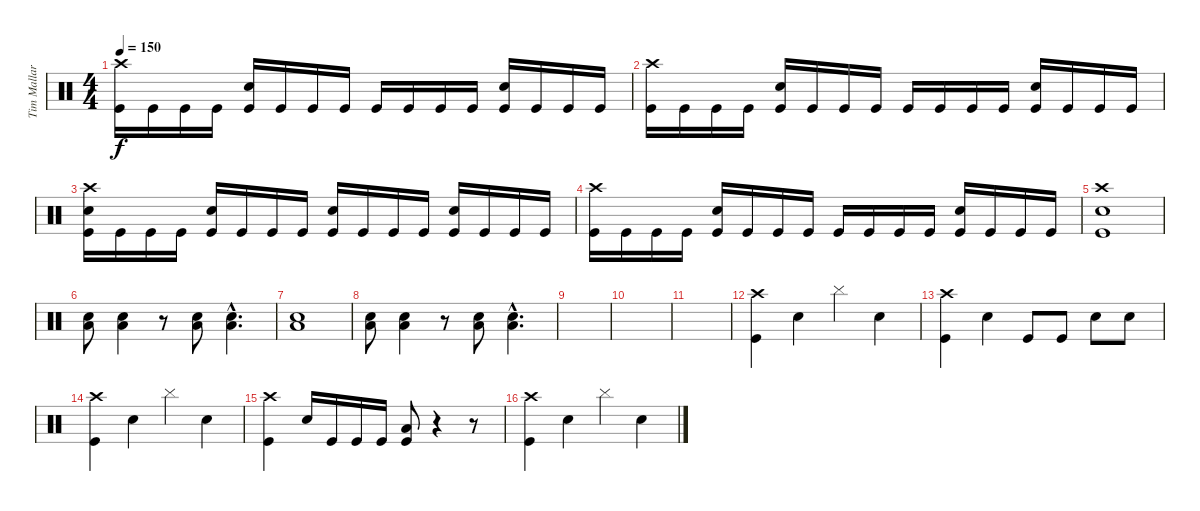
\track ("Tim Mallare-Drums" "Tim Mallar") {instrument percussion}
\staff {score}
\articulation defaults
\ts (4 4)
\tempo 150
\clef neutral
\ks c
("Crash high (hit)" "Kick (hit)").16{dy f} "Kick (hit)".16 "Kick (hit)".16 "Kick (hit)".16 ("Electric Snare (hit)" "Kick (hit)").16 "Kick (hit)".16 "Kick (hit)".16 "Kick (hit)".16 "Kick (hit)".16 "Kick (hit)".16 "Kick (hit)".16 "Kick (hit)".16 ("Electric Snare (hit)" "Kick (hit)").16 "Kick (hit)".16 "Kick (hit)".16 "Kick (hit)".16 |
("Crash high (hit)" "Kick (hit)").16 "Kick (hit)".16 "Kick (hit)".16 "Kick (hit)".16 ("Electric Snare (hit)" "Kick (hit)").16 "Kick (hit)".16 "Kick (hit)".16 "Kick (hit)".16 "Kick (hit)".16 "Kick (hit)".16 "Kick (hit)".16 "Kick (hit)".16 ("Electric Snare (hit)" "Kick (hit)").16 "Kick (hit)".16 "Kick (hit)".16 "Kick (hit)".16 |
("Crash high (hit)" "Electric Snare (hit)" "Kick (hit)").16 "Kick (hit)".16 "Kick (hit)".16 "Kick (hit)".16 ("Electric Snare (hit)" "Kick (hit)").16 "Kick (hit)".16 "Kick (hit)".16 "Kick (hit)".16 ("Electric Snare (hit)" "Kick (hit)").16 "Kick (hit)".16 "Kick (hit)".16 "Kick (hit)".16 ("Electric Snare (hit)" "Kick (hit)").16 "Kick (hit)".16 "Kick (hit)".16 "Kick (hit)".16 |
("Crash high (hit)" "Kick (hit)").16 "Kick (hit)".16 "Kick (hit)".16 "Kick (hit)".16 ("Electric Snare (hit)" "Kick (hit)").16 "Kick (hit)".16 "Kick (hit)".16 "Kick (hit)".16 "Kick (hit)".16 "Kick (hit)".16 "Kick (hit)".16 "Kick (hit)".16 ("Electric Snare (hit)" "Kick (hit)").16 "Kick (hit)".16 "Kick (hit)".16 "Kick (hit)".16 |
("Crash high (hit)" "Electric Snare (hit)" "Kick (hit)").1 |
("Electric Snare (hit)" "Low Tom (hit)").8 ("Electric Snare (hit)" "Low Tom (hit)").4 r.8 ("Electric Snare (hit)" "Low Tom (hit)").8 ("Electric Snare (hit)"{hac} "Low Tom (hit)"{hac}).4{d} |
("Electric Snare (hit)" "Low Tom (hit)").1 |
("Electric Snare (hit)" "Low Tom (hit)").8 ("Electric Snare (hit)" "Low Tom (hit)").4 r.8 ("Electric Snare (hit)" "Low Tom (hit)").8 ("Electric Snare (hit)"{hac} "Low Tom (hit)"{hac}).4{d} |
|
|
|
("Crash high (hit)" "Kick (hit)").4 "Electric Snare (hit)".4 "Cymbal (hit)".4 "Electric Snare (hit)".4 |
("Crash high (hit)" "Kick (hit)").4 "Electric Snare (hit)".4 "Kick (hit)".8 "Kick (hit)".8 "Electric Snare (hit)".8 "Electric Snare (hit)".8 |
("Crash high (hit)" "Kick (hit)").4 "Electric Snare (hit)".4 "Cymbal (hit)".4 "Electric Snare (hit)".4 |
("Crash high (hit)" "Kick (hit)").4 "Electric Snare (hit)".16 "Kick (hit)".16 "Kick (hit)".16 "Kick (hit)".16 ("Low Tom (hit)" "Kick (hit)").8 r.4 r.8 |
("Crash high (hit)" "Kick (hit)").4 "Electric Snare (hit)".4 "Cymbal (hit)".4 "Electric Snare (hit)".4
